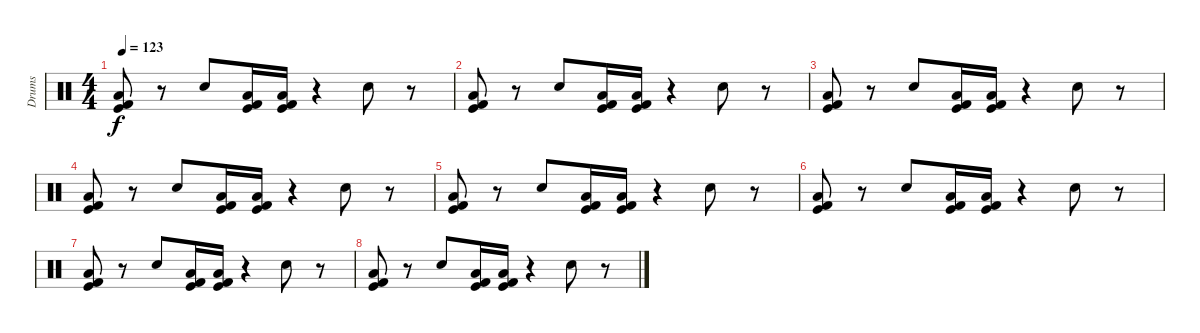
\track ("Drums" "Drums") {instrument percussion}
\staff {score}
\articulation defaults
\ts (4 4)
\tempo 123
\clef neutral
\ks c
("Kick (hit) 2" "Kick (hit)" "Low Floor Tom (hit)").8{dy f} r.8 "Electric Snare (hit)".8 ("Kick (hit) 2" "Kick (hit)" "Low Floor Tom (hit)").16 ("Kick (hit) 2" "Kick (hit)" "Low Floor Tom (hit)").16 r.4 "Electric Snare (hit)".8 r.8 |
("Kick (hit) 2" "Kick (hit)" "Low Floor Tom (hit)").8 r.8 "Electric Snare (hit)".8 ("Kick (hit) 2" "Kick (hit)" "Low Floor Tom (hit)").16 ("Kick (hit) 2" "Kick (hit)" "Low Floor Tom (hit)").16 r.4 "Electric Snare (hit)".8 r.8 |
("Kick (hit) 2" "Kick (hit)" "Low Floor Tom (hit)").8 r.8 "Electric Snare (hit)".8 ("Kick (hit) 2" "Kick (hit)" "Low Floor Tom (hit)").16 ("Kick (hit) 2" "Kick (hit)" "Low Floor Tom (hit)").16 r.4 "Electric Snare (hit)".8 r.8 |
("Kick (hit) 2" "Kick (hit)" "Low Floor Tom (hit)").8 r.8 "Electric Snare (hit)".8 ("Kick (hit) 2" "Kick (hit)" "Low Floor Tom (hit)").16 ("Kick (hit) 2" "Kick (hit)" "Low Floor Tom (hit)").16 r.4 "Electric Snare (hit)".8 r.8 |
("Kick (hit) 2" "Kick (hit)" "Low Floor Tom (hit)").8 r.8 "Electric Snare (hit)".8 ("Kick (hit) 2" "Kick (hit)" "Low Floor Tom (hit)").16 ("Kick (hit) 2" "Kick (hit)" "Low Floor Tom (hit)").16 r.4 "Electric Snare (hit)".8 r.8 |
("Kick (hit) 2" "Kick (hit)" "Low Floor Tom (hit)").8 r.8 "Electric Snare (hit)".8 ("Kick (hit) 2" "Kick (hit)" "Low Floor Tom (hit)").16 ("Kick (hit) 2" "Kick (hit)" "Low Floor Tom (hit)").16 r.4 "Electric Snare (hit)".8 r.8 |
("Kick (hit) 2" "Kick (hit)" "Low Floor Tom (hit)").8 r.8 "Electric Snare (hit)".8 ("Kick (hit) 2" "Kick (hit)" "Low Floor Tom (hit)").16 ("Kick (hit) 2" "Kick (hit)" "Low Floor Tom (hit)").16 r.4 "Electric Snare (hit)".8 r.8 |
("Kick (hit) 2" "Kick (hit)" "Low Floor Tom (hit)").8 r.8 "Electric Snare (hit)".8 ("Kick (hit) 2" "Kick (hit)" "Low Floor Tom (hit)").16 ("Kick (hit) 2" "Kick (hit)" "Low Floor Tom (hit)").16 r.4 "Electric Snare (hit)".8 r.8
